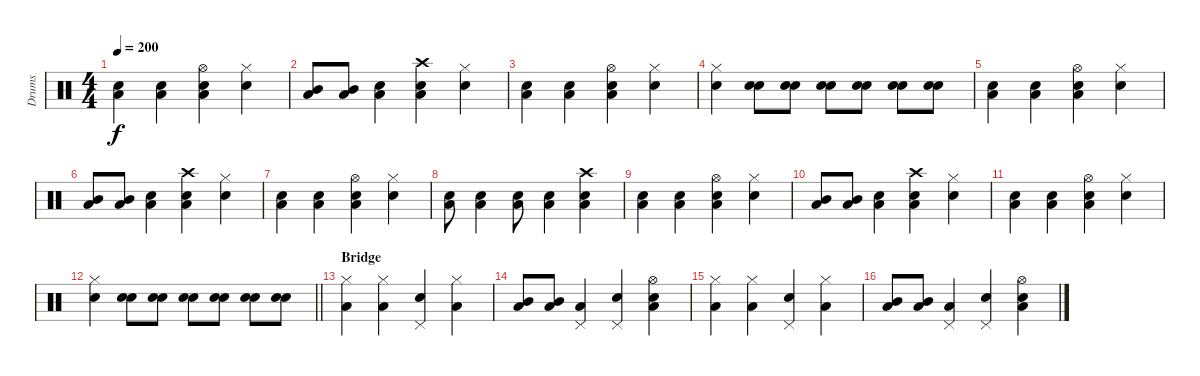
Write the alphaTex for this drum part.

\track ("Drums" "Drums") {instrument percussion}
\staff {score}
\articulation defaults
\ts (4 4)
\tempo 200
\clef neutral
\ks c
("Electric Snare (hit)" "Low Tom (hit)").4{dy f} ("Electric Snare (hit)" "Low Tom (hit)").4 ("Snare (hit) 2" "Low Tom (hit)" "Hi-Hat (open)").4 ("Electric Snare (hit)" "Hi-Hat (closed)").4 |
("Mid Tom (hit)" "Low Tom (hit)").8 ("Mid Tom (hit)" "Low Tom (hit)").8 ("Snare (hit) 2" "Low Tom (hit)").4 ("Electric Snare (hit)" "Low Tom (hit)" "Crash high (hit)").4 ("Electric Snare (hit)" "Hi-Hat (closed)").4 |
("Electric Snare (hit)" "Low Tom (hit)").4 ("Electric Snare (hit)" "Low Tom (hit)").4 ("Snare (hit) 2" "Low Tom (hit)" "Hi-Hat (open)").4 ("Electric Snare (hit)" "Hi-Hat (closed)").4 |
("Electric Snare (hit)" "Hi-Hat (closed)").4 ("Snare (hit) 2" "Electric Snare (hit)").8 ("Snare (hit) 2" "Electric Snare (hit)").8 ("Snare (hit) 2" "Electric Snare (hit)").8 ("Snare (hit) 2" "Electric Snare (hit)").8 ("Snare (hit) 2" "Electric Snare (hit)").8 ("Snare (hit) 2" "Electric Snare (hit)").8 |
("Electric Snare (hit)" "Low Tom (hit)").4 ("Electric Snare (hit)" "Low Tom (hit)").4 ("Snare (hit) 2" "Low Tom (hit)" "Hi-Hat (open)").4 ("Electric Snare (hit)" "Hi-Hat (closed)").4 |
("Mid Tom (hit)" "Low Tom (hit)").8 ("Mid Tom (hit)" "Low Tom (hit)").8 ("Snare (hit) 2" "Low Tom (hit)").4 ("Electric Snare (hit)" "Low Tom (hit)" "Crash high (hit)").4 ("Electric Snare (hit)" "Hi-Hat (closed)").4 |
("Electric Snare (hit)" "Low Tom (hit)").4 ("Electric Snare (hit)" "Low Tom (hit)").4 ("Snare (hit) 2" "Low Tom (hit)" "Hi-Hat (open)").4 ("Electric Snare (hit)" "Hi-Hat (closed)").4 |
("Snare (hit) 2" "Low Tom (hit)").8 ("Snare (hit) 2" "Low Tom (hit)").4 ("Snare (hit) 2" "Low Tom (hit)").8 ("Snare (hit) 2" "Low Tom (hit)").4 ("Electric Snare (hit)" "Low Tom (hit)" "Crash high (hit)").4 |
("Electric Snare (hit)" "Low Tom (hit)").4 ("Electric Snare (hit)" "Low Tom (hit)").4 ("Snare (hit) 2" "Low Tom (hit)" "Hi-Hat (open)").4 ("Electric Snare (hit)" "Hi-Hat (closed)").4 |
("Mid Tom (hit)" "Low Tom (hit)").8 ("Mid Tom (hit)" "Low Tom (hit)").8 ("Snare (hit) 2" "Low Tom (hit)").4 ("Electric Snare (hit)" "Low Tom (hit)" "Crash high (hit)").4 ("Electric Snare (hit)" "Hi-Hat (closed)").4 |
("Electric Snare (hit)" "Low Tom (hit)").4 ("Electric Snare (hit)" "Low Tom (hit)").4 ("Snare (hit) 2" "Low Tom (hit)" "Hi-Hat (open)").4 ("Electric Snare (hit)" "Hi-Hat (closed)").4 |
\barLineRight lightlight
("Electric Snare (hit)" "Hi-Hat (closed)").4 ("Snare (hit) 2" "Electric Snare (hit)").8 ("Snare (hit) 2" "Electric Snare (hit)").8 ("Snare (hit) 2" "Electric Snare (hit)").8 ("Snare (hit) 2" "Electric Snare (hit)").8 ("Snare (hit) 2" "Electric Snare (hit)").8 ("Snare (hit) 2" "Electric Snare (hit)").8 |
\section ("" "Bridge")
("Hi-Hat (closed)" "Low Tom (hit)").4 ("Hi-Hat (closed)" "Low Tom (hit)").4 ("Electric Snare (hit)" "Pedal Hi-Hat (hit)").4 ("Hi-Hat (closed)" "Low Tom (hit)").4 |
("Low Floor Tom (hit)" "Mid Tom (hit)").8 ("Low Floor Tom (hit)" "Mid Tom (hit)").8 ("Pedal Hi-Hat (hit)" "Low Tom (hit)").4 ("Snare (hit) 2" "Pedal Hi-Hat (hit)").4 ("Electric Snare (hit)" "Low Tom (hit)" "Hi-Hat (open)").4 |
("Hi-Hat (closed)" "Low Tom (hit)").4 ("Hi-Hat (closed)" "Low Tom (hit)").4 ("Electric Snare (hit)" "Pedal Hi-Hat (hit)").4 ("Hi-Hat (closed)" "Low Tom (hit)").4 |
("Low Floor Tom (hit)" "Mid Tom (hit)").8 ("Low Floor Tom (hit)" "Mid Tom (hit)").8 ("Pedal Hi-Hat (hit)" "Low Tom (hit)").4 ("Snare (hit) 2" "Pedal Hi-Hat (hit)").4 ("Electric Snare (hit)" "Low Tom (hit)" "Hi-Hat (open)").4
